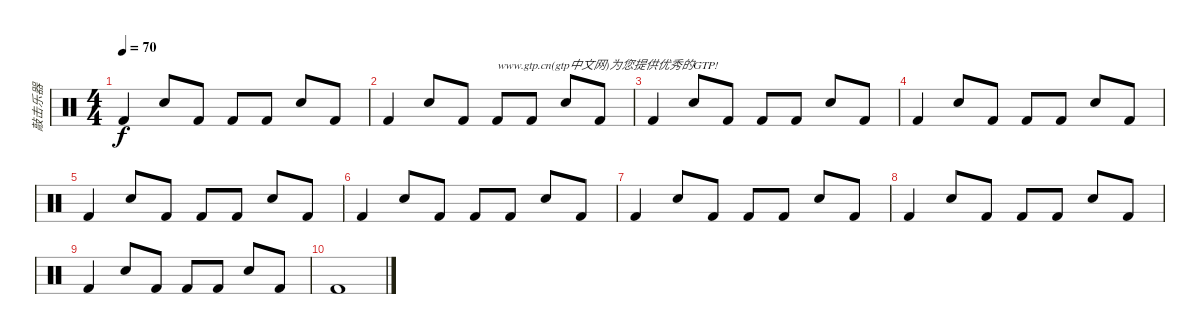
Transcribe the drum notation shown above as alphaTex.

\track ("敲击乐器" "敲击乐器") {instrument percussion}
\staff {score}
\articulation defaults
\ts (4 4)
\tempo 70
\clef neutral
\ks c "Kick (hit) 2".4{dy f} "Snare (hit) 2".8 "Kick (hit) 2".8 "Kick (hit) 2".8 "Kick (hit) 2".8 "Snare (hit) 2".8 "Kick (hit) 2".8
|
"Kick (hit) 2".4 "Snare (hit) 2".8 "Kick (hit) 2".8 "Kick (hit) 2".8{txt "www.gtp.cn(gtp中文网)为您提供优秀的GTP!"} "Kick (hit) 2".8 "Snare (hit) 2".8 "Kick (hit) 2".8 |
"Kick (hit) 2".4 "Snare (hit) 2".8 "Kick (hit) 2".8 "Kick (hit) 2".8 "Kick (hit) 2".8 "Snare (hit) 2".8 "Kick (hit) 2".8 |
"Kick (hit) 2".4 "Snare (hit) 2".8 "Kick (hit) 2".8 "Kick (hit) 2".8 "Kick (hit) 2".8 "Snare (hit) 2".8 "Kick (hit) 2".8 |
"Kick (hit) 2".4 "Snare (hit) 2".8 "Kick (hit) 2".8 "Kick (hit) 2".8 "Kick (hit) 2".8 "Snare (hit) 2".8 "Kick (hit) 2".8 |
"Kick (hit) 2".4 "Snare (hit) 2".8 "Kick (hit) 2".8 "Kick (hit) 2".8 "Kick (hit) 2".8 "Snare (hit) 2".8 "Kick (hit) 2".8 |
"Kick (hit) 2".4 "Snare (hit) 2".8 "Kick (hit) 2".8 "Kick (hit) 2".8 "Kick (hit) 2".8 "Snare (hit) 2".8 "Kick (hit) 2".8 |
"Kick (hit) 2".4 "Snare (hit) 2".8 "Kick (hit) 2".8 "Kick (hit) 2".8 "Kick (hit) 2".8 "Snare (hit) 2".8 "Kick (hit) 2".8 |
"Kick (hit) 2".4 "Snare (hit) 2".8 "Kick (hit) 2".8 "Kick (hit) 2".8 "Kick (hit) 2".8 "Snare (hit) 2".8 "Kick (hit) 2".8 |
"Kick (hit) 2".1
